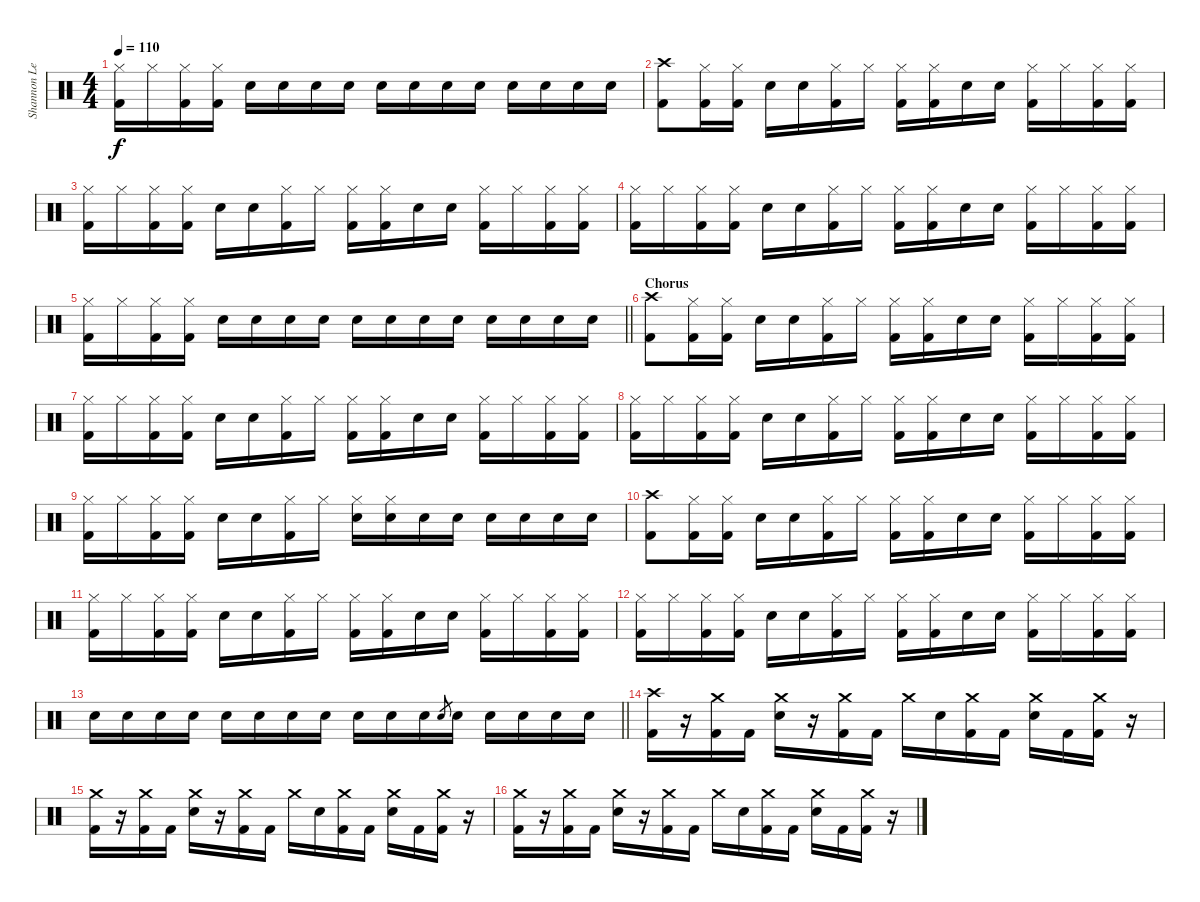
\track ("Shannon Leto [Drums]" "Shannon Le") {instrument percussion}
\staff {score}
\articulation defaults
\ts (4 4)
\tempo 110
\clef neutral
\ks c
("Hi-Hat (closed)" "Kick (hit) 2").16{dy f} "Hi-Hat (closed)".16 ("Hi-Hat (closed)" "Kick (hit) 2").16 ("Hi-Hat (closed)" "Kick (hit) 2").16 "Electric Snare (hit)".16{volume 6} "Electric Snare (hit)".16 "Electric Snare (hit)".16 "Electric Snare (hit)".16{volume 9} "Electric Snare (hit)".16 "Electric Snare (hit)".16 "Electric Snare (hit)".16 "Electric Snare (hit)".16{volume 11} "Electric Snare (hit)".16 "Electric Snare (hit)".16 "Electric Snare (hit)".16{volume 13} "Electric Snare (hit)".16 |
("Crash high (hit)" "Kick (hit) 2").8 ("Hi-Hat (closed)" "Kick (hit) 2").16 ("Hi-Hat (closed)" "Kick (hit) 2").16 "Electric Snare (hit)".16 "Electric Snare (hit)".16 ("Hi-Hat (closed)" "Kick (hit) 2").16 "Hi-Hat (closed)".16 ("Hi-Hat (closed)" "Kick (hit) 2").16 ("Hi-Hat (closed)" "Kick (hit) 2").16 "Electric Snare (hit)".16 "Electric Snare (hit)".16 ("Hi-Hat (closed)" "Kick (hit) 2").16 "Hi-Hat (closed)".16 ("Hi-Hat (closed)" "Kick (hit) 2").16 ("Hi-Hat (closed)" "Kick (hit) 2").16 |
("Hi-Hat (closed)" "Kick (hit) 2").16 "Hi-Hat (closed)".16 ("Hi-Hat (closed)" "Kick (hit) 2").16 ("Hi-Hat (closed)" "Kick (hit) 2").16 "Electric Snare (hit)".16 "Electric Snare (hit)".16 ("Hi-Hat (closed)" "Kick (hit) 2").16 "Hi-Hat (closed)".16 ("Hi-Hat (closed)" "Kick (hit) 2").16 ("Hi-Hat (closed)" "Kick (hit) 2").16 "Electric Snare (hit)".16 "Electric Snare (hit)".16 ("Hi-Hat (closed)" "Kick (hit) 2").16 "Hi-Hat (closed)".16 ("Hi-Hat (closed)" "Kick (hit) 2").16 ("Hi-Hat (closed)" "Kick (hit) 2").16 |
("Hi-Hat (closed)" "Kick (hit) 2").16 "Hi-Hat (closed)".16 ("Hi-Hat (closed)" "Kick (hit) 2").16 ("Hi-Hat (closed)" "Kick (hit) 2").16 "Electric Snare (hit)".16 "Electric Snare (hit)".16 ("Hi-Hat (closed)" "Kick (hit) 2").16 "Hi-Hat (closed)".16 ("Hi-Hat (closed)" "Kick (hit) 2").16 ("Hi-Hat (closed)" "Kick (hit) 2").16 "Electric Snare (hit)".16 "Electric Snare (hit)".16 ("Hi-Hat (closed)" "Kick (hit) 2").16 "Hi-Hat (closed)".16 ("Hi-Hat (closed)" "Kick (hit) 2").16 ("Hi-Hat (closed)" "Kick (hit) 2").16 |
\barLineRight lightlight
("Hi-Hat (closed)" "Kick (hit) 2").16 "Hi-Hat (closed)".16 ("Hi-Hat (closed)" "Kick (hit) 2").16 ("Hi-Hat (closed)" "Kick (hit) 2").16 "Electric Snare (hit)".16{volume 6} "Electric Snare (hit)".16 "Electric Snare (hit)".16 "Electric Snare (hit)".16{volume 9} "Electric Snare (hit)".16 "Electric Snare (hit)".16 "Electric Snare (hit)".16 "Electric Snare (hit)".16{volume 11} "Electric Snare (hit)".16 "Electric Snare (hit)".16 "Electric Snare (hit)".16{volume 13} "Electric Snare (hit)".16 |
\section ("" "Chorus")
("Crash high (hit)" "Kick (hit) 2").8 ("Hi-Hat (closed)" "Kick (hit) 2").16 ("Hi-Hat (closed)" "Kick (hit) 2").16 "Electric Snare (hit)".16 "Electric Snare (hit)".16 ("Hi-Hat (closed)" "Kick (hit) 2").16 "Hi-Hat (closed)".16 ("Hi-Hat (closed)" "Kick (hit) 2").16 ("Hi-Hat (closed)" "Kick (hit) 2").16 "Electric Snare (hit)".16 "Electric Snare (hit)".16 ("Hi-Hat (closed)" "Kick (hit) 2").16 "Hi-Hat (closed)".16 ("Hi-Hat (closed)" "Kick (hit) 2").16 ("Hi-Hat (closed)" "Kick (hit) 2").16 |
("Hi-Hat (closed)" "Kick (hit) 2").16 "Hi-Hat (closed)".16 ("Hi-Hat (closed)" "Kick (hit) 2").16 ("Hi-Hat (closed)" "Kick (hit) 2").16 "Electric Snare (hit)".16 "Electric Snare (hit)".16 ("Hi-Hat (closed)" "Kick (hit) 2").16 "Hi-Hat (closed)".16 ("Hi-Hat (closed)" "Kick (hit) 2").16 ("Hi-Hat (closed)" "Kick (hit) 2").16 "Electric Snare (hit)".16 "Electric Snare (hit)".16 ("Hi-Hat (closed)" "Kick (hit) 2").16 "Hi-Hat (closed)".16 ("Hi-Hat (closed)" "Kick (hit) 2").16 ("Hi-Hat (closed)" "Kick (hit) 2").16 |
("Hi-Hat (closed)" "Kick (hit) 2").16 "Hi-Hat (closed)".16 ("Hi-Hat (closed)" "Kick (hit) 2").16 ("Hi-Hat (closed)" "Kick (hit) 2").16 "Electric Snare (hit)".16 "Electric Snare (hit)".16 ("Hi-Hat (closed)" "Kick (hit) 2").16 "Hi-Hat (closed)".16 ("Hi-Hat (closed)" "Kick (hit) 2").16 ("Hi-Hat (closed)" "Kick (hit) 2").16 "Electric Snare (hit)".16 "Electric Snare (hit)".16 ("Hi-Hat (closed)" "Kick (hit) 2").16 "Hi-Hat (closed)".16 ("Hi-Hat (closed)" "Kick (hit) 2").16 ("Hi-Hat (closed)" "Kick (hit) 2").16 |
("Hi-Hat (closed)" "Kick (hit) 2").16 "Hi-Hat (closed)".16 ("Hi-Hat (closed)" "Kick (hit) 2").16 ("Hi-Hat (closed)" "Kick (hit) 2").16 "Electric Snare (hit)".16 "Electric Snare (hit)".16 ("Hi-Hat (closed)" "Kick (hit) 2").16 "Hi-Hat (closed)".16 ("Hi-Hat (closed)" "Electric Snare (hit)").16 ("Hi-Hat (closed)" "Electric Snare (hit)").16 "Electric Snare (hit)".16 "Electric Snare (hit)".16 "Electric Snare (hit)".16 "Electric Snare (hit)".16 "Electric Snare (hit)".16 "Electric Snare (hit)".16 |
("Crash high (hit)" "Kick (hit) 2").8 ("Hi-Hat (closed)" "Kick (hit) 2").16 ("Hi-Hat (closed)" "Kick (hit) 2").16 "Electric Snare (hit)".16 "Electric Snare (hit)".16 ("Hi-Hat (closed)" "Kick (hit) 2").16 "Hi-Hat (closed)".16 ("Hi-Hat (closed)" "Kick (hit) 2").16 ("Hi-Hat (closed)" "Kick (hit) 2").16 "Electric Snare (hit)".16 "Electric Snare (hit)".16 ("Hi-Hat (closed)" "Kick (hit) 2").16 "Hi-Hat (closed)".16 ("Hi-Hat (closed)" "Kick (hit) 2").16 ("Hi-Hat (closed)" "Kick (hit) 2").16 |
("Hi-Hat (closed)" "Kick (hit) 2").16 "Hi-Hat (closed)".16 ("Hi-Hat (closed)" "Kick (hit) 2").16 ("Hi-Hat (closed)" "Kick (hit) 2").16 "Electric Snare (hit)".16 "Electric Snare (hit)".16 ("Hi-Hat (closed)" "Kick (hit) 2").16 "Hi-Hat (closed)".16 ("Hi-Hat (closed)" "Kick (hit) 2").16 ("Hi-Hat (closed)" "Kick (hit) 2").16 "Electric Snare (hit)".16 "Electric Snare (hit)".16 ("Hi-Hat (closed)" "Kick (hit) 2").16 "Hi-Hat (closed)".16 ("Hi-Hat (closed)" "Kick (hit) 2").16 ("Hi-Hat (closed)" "Kick (hit) 2").16 |
("Hi-Hat (closed)" "Kick (hit) 2").16 "Hi-Hat (closed)".16 ("Hi-Hat (closed)" "Kick (hit) 2").16 ("Hi-Hat (closed)" "Kick (hit) 2").16 "Electric Snare (hit)".16 "Electric Snare (hit)".16 ("Hi-Hat (closed)" "Kick (hit) 2").16 "Hi-Hat (closed)".16 ("Hi-Hat (closed)" "Kick (hit) 2").16 ("Hi-Hat (closed)" "Kick (hit) 2").16 "Electric Snare (hit)".16 "Electric Snare (hit)".16 ("Hi-Hat (closed)" "Kick (hit) 2").16 "Hi-Hat (closed)".16 ("Hi-Hat (closed)" "Kick (hit) 2").16 ("Hi-Hat (closed)" "Kick (hit) 2").16 |
\barLineRight lightlight "Electric Snare (hit)".16 "Electric Snare (hit)".16 "Electric Snare (hit)".16 "Electric Snare (hit)".16 "Electric Snare (hit)".16 "Electric Snare (hit)".16 "Electric Snare (hit)".16 "Electric Snare (hit)".16 "Electric Snare (hit)".16 "Electric Snare (hit)".16 "Electric Snare (hit)".16 "Electric Snare (hit)".8{gr} "Electric Snare (hit)".16 "Electric Snare (hit)".16 "Electric Snare (hit)".16 "Electric Snare (hit)".16 "Electric Snare (hit)".16
|
("Crash high (hit)" "Kick (hit) 2").16 r.16 ("Crash medium (hit)" "Kick (hit) 2").16 "Kick (hit) 2".16 ("Crash medium (hit)" "Electric Snare (hit)").16 r.16 ("Crash medium (hit)" "Kick (hit) 2").16 "Kick (hit) 2".16 "Crash medium (hit)".16 "Electric Snare (hit)".16 ("Crash medium (hit)" "Kick (hit) 2").16 "Kick (hit) 2".16 ("Crash medium (hit)" "Electric Snare (hit)").16 "Kick (hit) 2".16 ("Crash medium (hit)" "Kick (hit) 2").16 r.16 |
("Crash medium (hit)" "Kick (hit) 2").16 r.16 ("Crash medium (hit)" "Kick (hit) 2").16 "Kick (hit) 2".16 ("Crash medium (hit)" "Electric Snare (hit)").16 r.16 ("Crash medium (hit)" "Kick (hit) 2").16 "Kick (hit) 2".16 "Crash medium (hit)".16 "Electric Snare (hit)".16 ("Crash medium (hit)" "Kick (hit) 2").16 "Kick (hit) 2".16 ("Crash medium (hit)" "Electric Snare (hit)").16 "Kick (hit) 2".16 ("Crash medium (hit)" "Kick (hit) 2").16 r.16 |
("Crash medium (hit)" "Kick (hit) 2").16 r.16 ("Crash medium (hit)" "Kick (hit) 2").16 "Kick (hit) 2".16 ("Crash medium (hit)" "Electric Snare (hit)").16 r.16 ("Crash medium (hit)" "Kick (hit) 2").16 "Kick (hit) 2".16 "Crash medium (hit)".16 "Electric Snare (hit)".16 ("Crash medium (hit)" "Kick (hit) 2").16 "Kick (hit) 2".16 ("Crash medium (hit)" "Electric Snare (hit)").16 "Kick (hit) 2".16 ("Crash medium (hit)" "Kick (hit) 2").16 r.16
